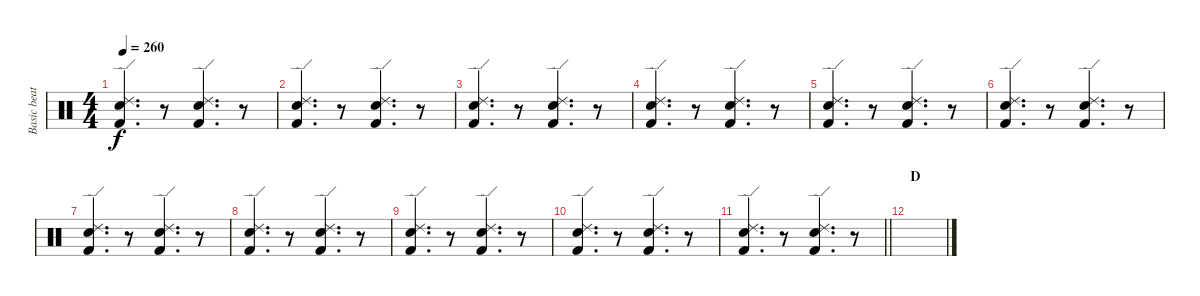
\track ("Basic beat" "Basic beat") {instrument percussion}
\staff {score}
\articulation defaults
\ts (4 4)
\tempo 260
\clef neutral
\ks c
("Ride (edge) 2" "Electric Snare (hit)" "Kick (hit) 2").4{d dy f} r.8 ("Ride (edge) 2" "Electric Snare (hit)" "Kick (hit) 2").4{d} r.8 |
("Ride (edge) 2" "Electric Snare (hit)" "Kick (hit) 2").4{d} r.8 ("Ride (edge) 2" "Electric Snare (hit)" "Kick (hit) 2").4{d} r.8 |
("Ride (edge) 2" "Electric Snare (hit)" "Kick (hit) 2").4{d} r.8 ("Ride (edge) 2" "Electric Snare (hit)" "Kick (hit) 2").4{d} r.8 |
("Ride (edge) 2" "Electric Snare (hit)" "Kick (hit) 2").4{d} r.8 ("Ride (edge) 2" "Electric Snare (hit)" "Kick (hit) 2").4{d} r.8 |
("Ride (edge) 2" "Electric Snare (hit)" "Kick (hit) 2").4{d} r.8 ("Ride (edge) 2" "Electric Snare (hit)" "Kick (hit) 2").4{d} r.8 |
("Ride (edge) 2" "Electric Snare (hit)" "Kick (hit) 2").4{d} r.8 ("Ride (edge) 2" "Electric Snare (hit)" "Kick (hit) 2").4{d} r.8 |
("Ride (edge) 2" "Electric Snare (hit)" "Kick (hit) 2").4{d} r.8 ("Ride (edge) 2" "Electric Snare (hit)" "Kick (hit) 2").4{d} r.8 |
("Ride (edge) 2" "Electric Snare (hit)" "Kick (hit) 2").4{d} r.8 ("Ride (edge) 2" "Electric Snare (hit)" "Kick (hit) 2").4{d} r.8 |
("Ride (edge) 2" "Electric Snare (hit)" "Kick (hit) 2").4{d} r.8 ("Ride (edge) 2" "Electric Snare (hit)" "Kick (hit) 2").4{d} r.8 |
("Ride (edge) 2" "Electric Snare (hit)" "Kick (hit) 2").4{d} r.8 ("Ride (edge) 2" "Electric Snare (hit)" "Kick (hit) 2").4{d} r.8 |
\barLineRight lightlight
("Ride (edge) 2" "Electric Snare (hit)" "Kick (hit) 2").4{d} r.8 ("Ride (edge) 2" "Electric Snare (hit)" "Kick (hit) 2").4{d} r.8 |
\section ("" "D")
